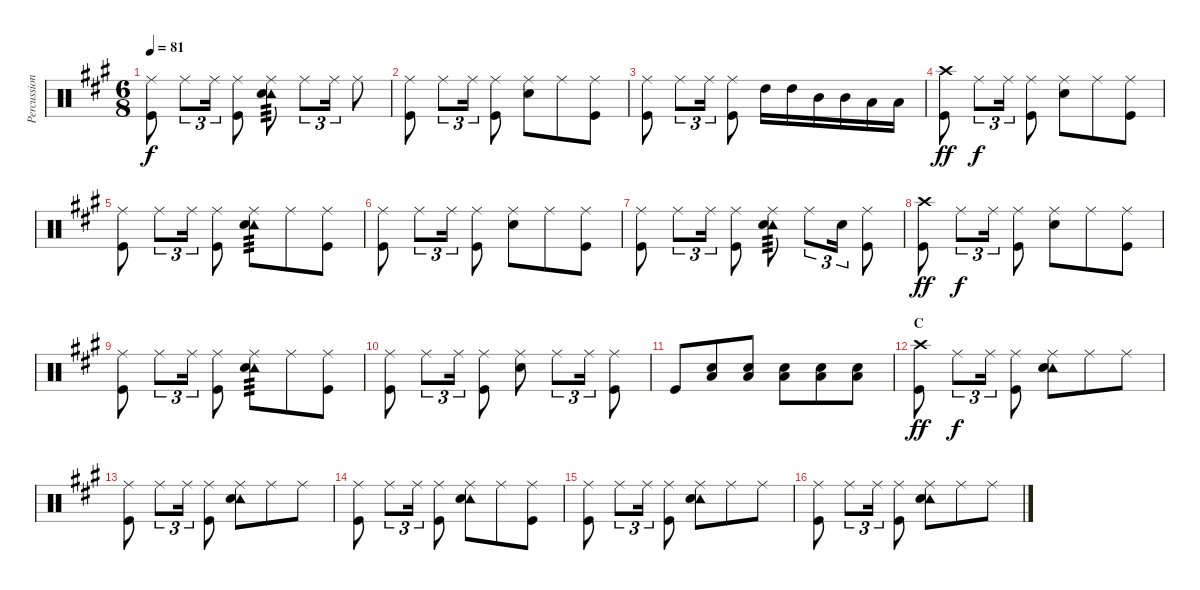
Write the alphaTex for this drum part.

\track ("Percussion" "Percussion") {instrument percussion}
\staff {score}
\articulation defaults
\ts (6 8)
\tempo 81
\clef neutral
\ks a
("Ride (middle)" "Kick (hit)").8{dy f} "Ride (middle)".8{tu (3 2)} "Ride (middle)".16{tu (3 2)} ("Ride (middle)" "Kick (hit)").8 ("Ride (middle)" "Tambourine (hit)" "Snare (hit) 2").8{tp 3} "Ride (middle)".8{tu (3 2)} "Ride (middle)".16{tu (3 2)} "Ride (middle)".8 |
("Ride (middle)" "Kick (hit)").8 "Ride (middle)".8{tu (3 2)} "Ride (middle)".16{tu (3 2)} ("Ride (middle)" "Kick (hit)").8 ("Ride (middle)" "Snare (hit) 2").8 "Ride (middle)".8 ("Ride (middle)" "Kick (hit)").8 |
("Ride (middle)" "Kick (hit)").8 "Ride (middle)".8{tu (3 2)} "Ride (middle)".16{tu (3 2)} ("Ride (middle)" "Kick (hit)").8 "High Tom (hit)".16 "High Tom (hit)".16 "Mid Tom (hit)".16 "Mid Tom (hit)".16 "Low Tom (hit)".16 "Low Tom (hit)".16 |
("Crash high (hit)" "Kick (hit)").8{dy ff} "Ride (middle)".8{tu (3 2) dy f} "Ride (middle)".16{tu (3 2)} ("Ride (middle)" "Kick (hit)").8 ("Ride (middle)" "Snare (hit) 2").8 "Ride (middle)".8 ("Ride (middle)" "Kick (hit)").8 |
("Ride (middle)" "Kick (hit)").8 "Ride (middle)".8{tu (3 2)} "Ride (middle)".16{tu (3 2)} ("Ride (middle)" "Kick (hit)").8 ("Ride (middle)" "Tambourine (hit)" "Snare (hit) 2").8{tp 3} "Ride (middle)".8 ("Ride (middle)" "Kick (hit)").8 |
("Ride (middle)" "Kick (hit)").8 "Ride (middle)".8{tu (3 2)} "Ride (middle)".16{tu (3 2)} ("Ride (middle)" "Kick (hit)").8 ("Ride (middle)" "Snare (hit) 2").8 "Ride (middle)".8 ("Ride (middle)" "Kick (hit)").8 |
("Ride (middle)" "Kick (hit)").8 "Ride (middle)".8{tu (3 2)} "Ride (middle)".16{tu (3 2)} ("Ride (middle)" "Kick (hit)").8 ("Ride (middle)" "Tambourine (hit)" "Snare (hit) 2").8{tp 3} "Ride (middle)".8{tu (3 2)} "Snare (hit) 2".16{tu (3 2)} ("Ride (middle)" "Kick (hit)").8 |
("Crash high (hit)" "Kick (hit)").8{dy ff} "Ride (middle)".8{tu (3 2) dy f} "Ride (middle)".16{tu (3 2)} ("Ride (middle)" "Kick (hit)").8 ("Ride (middle)" "Snare (hit) 2").8 "Ride (middle)".8 ("Ride (middle)" "Kick (hit)").8 |
("Ride (middle)" "Kick (hit)").8 "Ride (middle)".8{tu (3 2)} "Ride (middle)".16{tu (3 2)} ("Ride (middle)" "Kick (hit)").8 ("Ride (middle)" "Tambourine (hit)" "Snare (hit) 2").8{tp 3} "Ride (middle)".8 ("Ride (middle)" "Kick (hit)").8 |
("Ride (middle)" "Kick (hit)").8 "Ride (middle)".8{tu (3 2)} "Ride (middle)".16{tu (3 2)} ("Ride (middle)" "Kick (hit)").8 ("Ride (middle)" "Snare (hit) 2").8 "Ride (middle)".8{tu (3 2)} "Ride (middle)".16{tu (3 2)} ("Ride (middle)" "Kick (hit)").8 |
"Kick (hit)".8 ("Low Floor Tom (hit)" "Snare (hit) 2").8 ("Low Floor Tom (hit)" "Snare (hit) 2").8 ("Low Floor Tom (hit)" "Snare (hit) 2").8 ("Low Floor Tom (hit)" "Snare (hit) 2").8 ("Low Floor Tom (hit)" "Snare (hit) 2").8 |
\section ("" "C")
("Crash high (hit)" "Kick (hit)").8{dy ff} "Ride (middle)".8{tu (3 2) dy f} "Ride (middle)".16{tu (3 2)} ("Ride (middle)" "Kick (hit)").8 ("Ride (middle)" "Tambourine (hit)" "Snare (hit) 2").8 "Ride (middle)".8 "Ride (middle)".8 |
("Ride (middle)" "Kick (hit)").8 "Ride (middle)".8{tu (3 2)} "Ride (middle)".16{tu (3 2)} ("Ride (middle)" "Kick (hit)").8 ("Ride (middle)" "Tambourine (hit)" "Snare (hit) 2").8 "Ride (middle)".8 "Ride (middle)".8 |
("Ride (middle)" "Kick (hit)").8 "Ride (middle)".8{tu (3 2)} "Ride (middle)".16{tu (3 2)} ("Ride (middle)" "Kick (hit)").8 ("Ride (middle)" "Tambourine (hit)" "Snare (hit) 2").8 "Ride (middle)".8 ("Ride (middle)" "Kick (hit)").8 |
("Ride (middle)" "Kick (hit)").8 "Ride (middle)".8{tu (3 2)} "Ride (middle)".16{tu (3 2)} ("Ride (middle)" "Kick (hit)").8 ("Ride (middle)" "Tambourine (hit)" "Snare (hit) 2").8 "Ride (middle)".8 "Ride (middle)".8 |
("Ride (middle)" "Kick (hit)").8 "Ride (middle)".8{tu (3 2)} "Ride (middle)".16{tu (3 2)} ("Ride (middle)" "Kick (hit)").8 ("Ride (middle)" "Tambourine (hit)" "Snare (hit) 2").8 "Ride (middle)".8 "Ride (middle)".8
